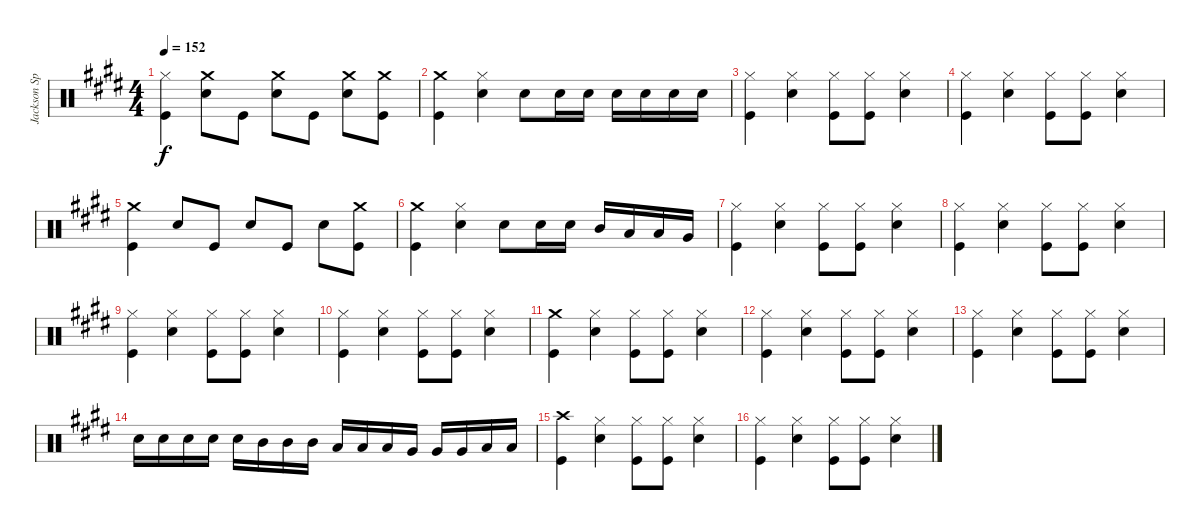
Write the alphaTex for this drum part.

\track ("Jackson Spiers Drums" "Jackson Sp") {instrument percussion}
\staff {score}
\articulation defaults
\ts (4 4)
\tempo 152
\clef neutral
\ks c#minor
("Hi-Hat (closed)" "Kick (hit)").4{dy f} ("Crash medium (hit)" "Snare (hit) 2").8 "Kick (hit)".8 ("Crash medium (hit)" "Snare (hit) 2").8 "Kick (hit)".8 ("Crash medium (hit)" "Snare (hit) 2").8 ("Crash medium (hit)" "Kick (hit)").8 |
("Crash medium (hit)" "Kick (hit)").4 ("Hi-Hat (closed)" "Snare (hit) 2").4 "Snare (hit) 2".8 "Snare (hit) 2".16 "Snare (hit) 2".16 "Snare (hit) 2".16 "Snare (hit) 2".16 "Snare (hit) 2".16 "Snare (hit) 2".16 |
("Hi-Hat (closed)" "Kick (hit)").4 ("Hi-Hat (closed)" "Snare (hit) 2").4 ("Hi-Hat (closed)" "Kick (hit)").8 ("Hi-Hat (closed)" "Kick (hit)").8 ("Hi-Hat (closed)" "Snare (hit) 2").4 |
("Hi-Hat (closed)" "Kick (hit)").4 ("Hi-Hat (closed)" "Snare (hit) 2").4 ("Hi-Hat (closed)" "Kick (hit)").8 ("Hi-Hat (closed)" "Kick (hit)").8 ("Hi-Hat (closed)" "Snare (hit) 2").4 |
("Crash medium (hit)" "Kick (hit)").4 "Snare (hit) 2".8 "Kick (hit)".8 "Snare (hit) 2".8 "Kick (hit)".8 "Snare (hit) 2".8 ("Crash medium (hit)" "Kick (hit)").8 |
("Crash medium (hit)" "Kick (hit)").4 ("Hi-Hat (closed)" "Snare (hit) 2").4 "Snare (hit) 2".8 "Snare (hit) 2".16 "Snare (hit) 2".16 "Mid Tom (hit)".16 "Low Tom (hit)".16 "Low Tom (hit)".16 "Very Low Tom (hit)".16 |
("Hi-Hat (closed)" "Kick (hit)").4 ("Hi-Hat (closed)" "Snare (hit) 2").4 ("Hi-Hat (closed)" "Kick (hit)").8 ("Hi-Hat (closed)" "Kick (hit)").8 ("Hi-Hat (closed)" "Snare (hit) 2").4 |
("Hi-Hat (closed)" "Kick (hit)").4 ("Hi-Hat (closed)" "Snare (hit) 2").4 ("Hi-Hat (closed)" "Kick (hit)").8 ("Hi-Hat (closed)" "Kick (hit)").8 ("Hi-Hat (closed)" "Snare (hit) 2").4 |
("Hi-Hat (closed)" "Kick (hit)").4 ("Hi-Hat (closed)" "Snare (hit) 2").4 ("Hi-Hat (closed)" "Kick (hit)").8 ("Hi-Hat (closed)" "Kick (hit)").8 ("Hi-Hat (closed)" "Snare (hit) 2").4 |
("Hi-Hat (closed)" "Kick (hit)").4 ("Hi-Hat (closed)" "Snare (hit) 2").4 ("Hi-Hat (closed)" "Kick (hit)").8 ("Hi-Hat (closed)" "Kick (hit)").8 ("Hi-Hat (closed)" "Snare (hit) 2").4 |
("Crash medium (hit)" "Kick (hit)").4 ("Hi-Hat (closed)" "Snare (hit) 2").4 ("Hi-Hat (closed)" "Kick (hit)").8 ("Hi-Hat (closed)" "Kick (hit)").8 ("Hi-Hat (closed)" "Snare (hit) 2").4 |
("Hi-Hat (closed)" "Kick (hit)").4 ("Hi-Hat (closed)" "Snare (hit) 2").4 ("Hi-Hat (closed)" "Kick (hit)").8 ("Hi-Hat (closed)" "Kick (hit)").8 ("Hi-Hat (closed)" "Snare (hit) 2").4 |
("Hi-Hat (closed)" "Kick (hit)").4 ("Hi-Hat (closed)" "Snare (hit) 2").4 ("Hi-Hat (closed)" "Kick (hit)").8 ("Hi-Hat (closed)" "Kick (hit)").8 ("Hi-Hat (closed)" "Snare (hit) 2").4 |
"Snare (hit) 2".16 "Snare (hit) 2".16 "Snare (hit) 2".16 "Snare (hit) 2".16 "Snare (hit) 2".16 "Mid Tom (hit)".16 "Mid Tom (hit)".16 "Mid Tom (hit)".16 "Low Tom (hit)".16 "Low Tom (hit)".16 "Low Tom (hit)".16 "Very Low Tom (hit)".16 "Very Low Tom (hit)".16 "Very Low Tom (hit)".16 "Low Floor Tom (hit)".16 "Low Floor Tom (hit)".16 |
("Crash high (hit)" "Kick (hit)").4 ("Hi-Hat (closed)" "Snare (hit) 2").4 ("Hi-Hat (closed)" "Kick (hit)").8 ("Hi-Hat (closed)" "Kick (hit)").8 ("Hi-Hat (closed)" "Snare (hit) 2").4 |
("Hi-Hat (closed)" "Kick (hit)").4 ("Hi-Hat (closed)" "Snare (hit) 2").4 ("Hi-Hat (closed)" "Kick (hit)").8 ("Hi-Hat (closed)" "Kick (hit)").8 ("Hi-Hat (closed)" "Snare (hit) 2").4
